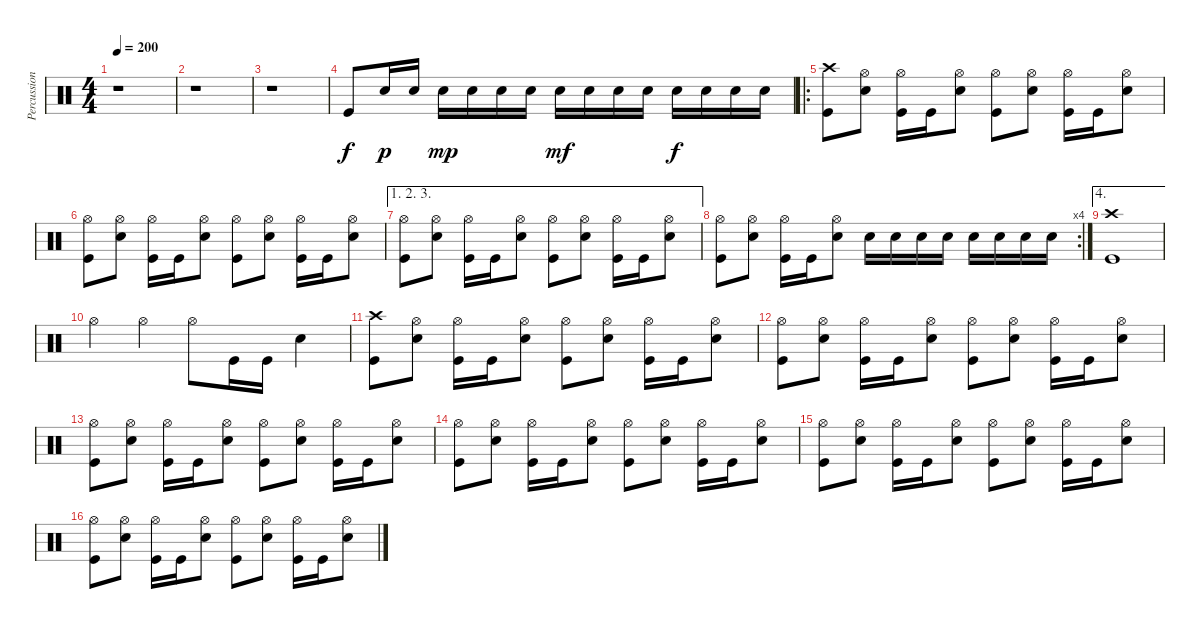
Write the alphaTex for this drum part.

\track ("Percussion" "Percussion") {instrument percussion}
\staff {score}
\articulation defaults
\ts (4 4)
\tempo 200
\clef neutral
\ks c
r.1{dy f} |
r.1 |
r.1 |
"Kick (hit)".8 "Electric Snare (hit)".16{dy p} "Electric Snare (hit)".16 "Electric Snare (hit)".16{dy mp} "Electric Snare (hit)".16 "Electric Snare (hit)".16 "Electric Snare (hit)".16 "Electric Snare (hit)".16{dy mf} "Electric Snare (hit)".16 "Electric Snare (hit)".16 "Electric Snare (hit)".16 "Electric Snare (hit)".16{dy f} "Electric Snare (hit)".16 "Electric Snare (hit)".16 "Electric Snare (hit)".16 |
\ro
("Crash high (hit)" "Kick (hit)").8 ("Hi-Hat (open)" "Electric Snare (hit)").8 ("Hi-Hat (open)" "Kick (hit)").16 "Kick (hit)".16 ("Hi-Hat (open)" "Electric Snare (hit)").8 ("Hi-Hat (open)" "Kick (hit)").8 ("Hi-Hat (open)" "Electric Snare (hit)").8 ("Hi-Hat (open)" "Kick (hit)").16 "Kick (hit)".16 ("Hi-Hat (open)" "Electric Snare (hit)").8 |
("Hi-Hat (open)" "Kick (hit)").8 ("Hi-Hat (open)" "Electric Snare (hit)").8 ("Hi-Hat (open)" "Kick (hit)").16 "Kick (hit)".16 ("Hi-Hat (open)" "Electric Snare (hit)").8 ("Hi-Hat (open)" "Kick (hit)").8 ("Hi-Hat (open)" "Electric Snare (hit)").8 ("Hi-Hat (open)" "Kick (hit)").16 "Kick (hit)".16 ("Hi-Hat (open)" "Electric Snare (hit)").8 |
\ae (1 2 3)
("Hi-Hat (open)" "Kick (hit)").8 ("Hi-Hat (open)" "Electric Snare (hit)").8 ("Hi-Hat (open)" "Kick (hit)").16 "Kick (hit)".16 ("Hi-Hat (open)" "Electric Snare (hit)").8 ("Hi-Hat (open)" "Kick (hit)").8 ("Hi-Hat (open)" "Electric Snare (hit)").8 ("Hi-Hat (open)" "Kick (hit)").16 "Kick (hit)".16 ("Hi-Hat (open)" "Electric Snare (hit)").8 |
\rc 4
("Hi-Hat (open)" "Kick (hit)").8 ("Hi-Hat (open)" "Electric Snare (hit)").8 ("Hi-Hat (open)" "Kick (hit)").16 "Kick (hit)".16 ("Hi-Hat (open)" "Electric Snare (hit)").8 "Electric Snare (hit)".16 "Electric Snare (hit)".16 "Electric Snare (hit)".16 "Electric Snare (hit)".16 "Electric Snare (hit)".16 "Electric Snare (hit)".16 "Electric Snare (hit)".16 "Electric Snare (hit)".16 |
\ae 4
("Crash high (hit)" "Kick (hit)").1 |
"Hi-Hat (open)".4 "Hi-Hat (open)".4 "Hi-Hat (open)".8 "Kick (hit)".16 "Kick (hit)".16 "Electric Snare (hit)".4 |
("Crash high (hit)" "Kick (hit)").8 ("Hi-Hat (open)" "Electric Snare (hit)").8 ("Hi-Hat (open)" "Kick (hit)").16 "Kick (hit)".16 ("Hi-Hat (open)" "Electric Snare (hit)").8 ("Hi-Hat (open)" "Kick (hit)").8 ("Hi-Hat (open)" "Electric Snare (hit)").8 ("Hi-Hat (open)" "Kick (hit)").16 "Kick (hit)".16 ("Hi-Hat (open)" "Electric Snare (hit)").8 |
("Hi-Hat (open)" "Kick (hit)").8 ("Hi-Hat (open)" "Electric Snare (hit)").8 ("Hi-Hat (open)" "Kick (hit)").16 "Kick (hit)".16 ("Hi-Hat (open)" "Electric Snare (hit)").8 ("Hi-Hat (open)" "Kick (hit)").8 ("Hi-Hat (open)" "Electric Snare (hit)").8 ("Hi-Hat (open)" "Kick (hit)").16 "Kick (hit)".16 ("Hi-Hat (open)" "Electric Snare (hit)").8 |
("Hi-Hat (open)" "Kick (hit)").8 ("Hi-Hat (open)" "Electric Snare (hit)").8 ("Hi-Hat (open)" "Kick (hit)").16 "Kick (hit)".16 ("Hi-Hat (open)" "Electric Snare (hit)").8 ("Hi-Hat (open)" "Kick (hit)").8 ("Hi-Hat (open)" "Electric Snare (hit)").8 ("Hi-Hat (open)" "Kick (hit)").16 "Kick (hit)".16 ("Hi-Hat (open)" "Electric Snare (hit)").8 |
("Hi-Hat (open)" "Kick (hit)").8 ("Hi-Hat (open)" "Electric Snare (hit)").8 ("Hi-Hat (open)" "Kick (hit)").16 "Kick (hit)".16 ("Hi-Hat (open)" "Electric Snare (hit)").8 ("Hi-Hat (open)" "Kick (hit)").8 ("Hi-Hat (open)" "Electric Snare (hit)").8 ("Hi-Hat (open)" "Kick (hit)").16 "Kick (hit)".16 ("Hi-Hat (open)" "Electric Snare (hit)").8 |
("Hi-Hat (open)" "Kick (hit)").8 ("Hi-Hat (open)" "Electric Snare (hit)").8 ("Hi-Hat (open)" "Kick (hit)").16 "Kick (hit)".16 ("Hi-Hat (open)" "Electric Snare (hit)").8 ("Hi-Hat (open)" "Kick (hit)").8 ("Hi-Hat (open)" "Electric Snare (hit)").8 ("Hi-Hat (open)" "Kick (hit)").16 "Kick (hit)".16 ("Hi-Hat (open)" "Electric Snare (hit)").8 |
("Hi-Hat (open)" "Kick (hit)").8 ("Hi-Hat (open)" "Electric Snare (hit)").8 ("Hi-Hat (open)" "Kick (hit)").16 "Kick (hit)".16 ("Hi-Hat (open)" "Electric Snare (hit)").8 ("Hi-Hat (open)" "Kick (hit)").8 ("Hi-Hat (open)" "Electric Snare (hit)").8 ("Hi-Hat (open)" "Kick (hit)").16 "Kick (hit)".16 ("Hi-Hat (open)" "Electric Snare (hit)").8
